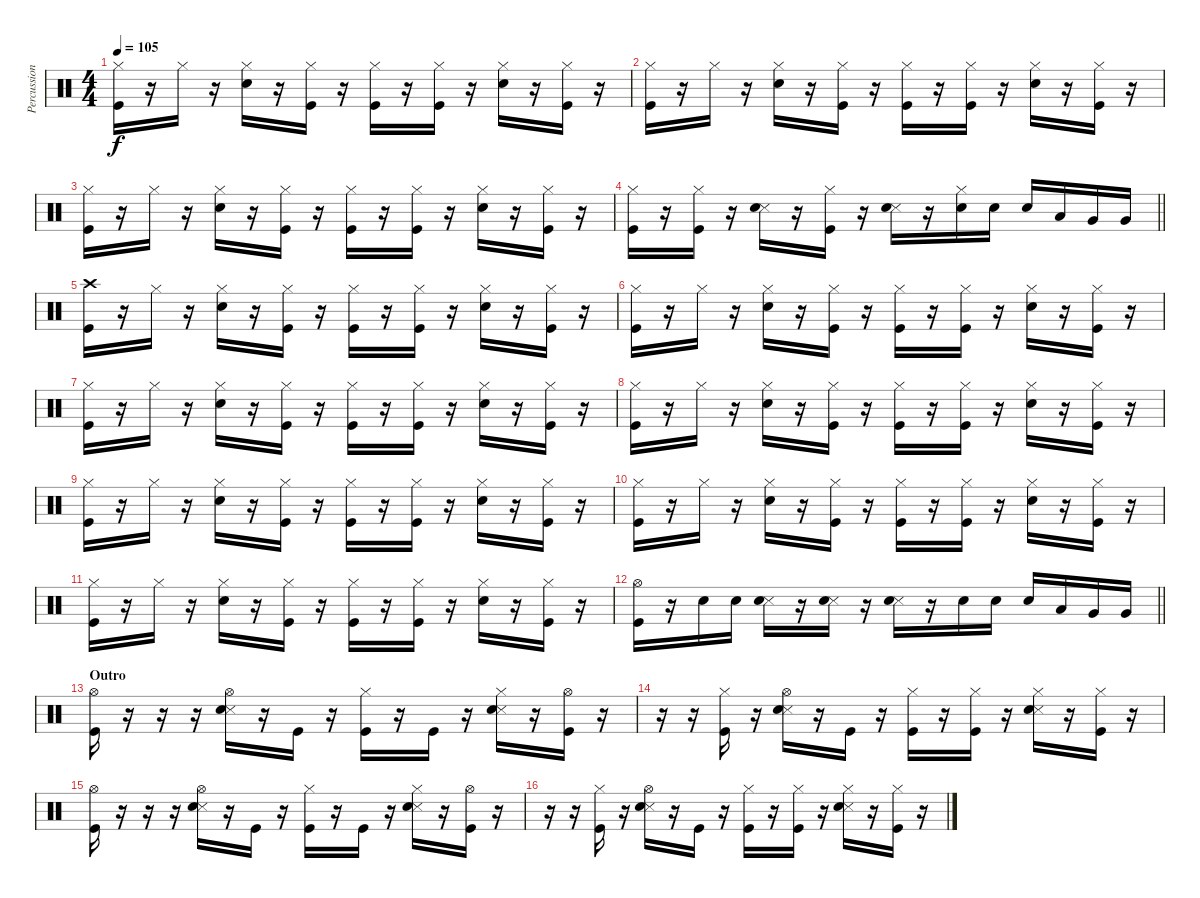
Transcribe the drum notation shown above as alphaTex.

\track ("Percussion" "Percussion") {instrument percussion}
\staff {score}
\articulation defaults
\ts (4 4)
\tempo 105
\clef neutral
\ks c
("Hi-Hat (closed)" "Kick (hit)").16{dy f} r.16 "Hi-Hat (closed)".16 r.16 ("Hi-Hat (closed)" "Snare (hit) 2").16 r.16 ("Hi-Hat (closed)" "Kick (hit)").16 r.16 ("Hi-Hat (closed)" "Kick (hit)").16 r.16 ("Hi-Hat (closed)" "Kick (hit)").16 r.16 ("Hi-Hat (closed)" "Snare (hit) 2").16 r.16 ("Hi-Hat (closed)" "Kick (hit)").16 r.16 |
("Hi-Hat (closed)" "Kick (hit)").16 r.16 "Hi-Hat (closed)".16 r.16 ("Hi-Hat (closed)" "Snare (hit) 2").16 r.16 ("Hi-Hat (closed)" "Kick (hit)").16 r.16 ("Hi-Hat (closed)" "Kick (hit)").16 r.16 ("Hi-Hat (closed)" "Kick (hit)").16 r.16 ("Hi-Hat (closed)" "Snare (hit) 2").16 r.16 ("Hi-Hat (closed)" "Kick (hit)").16 r.16 |
("Hi-Hat (closed)" "Kick (hit)").16 r.16 "Hi-Hat (closed)".16 r.16 ("Hi-Hat (closed)" "Snare (hit) 2").16 r.16 ("Hi-Hat (closed)" "Kick (hit)").16 r.16 ("Hi-Hat (closed)" "Kick (hit)").16 r.16 ("Hi-Hat (closed)" "Kick (hit)").16 r.16 ("Hi-Hat (closed)" "Snare (hit) 2").16 r.16 ("Hi-Hat (closed)" "Kick (hit)").16 r.16 |
\barLineRight lightlight
("Hi-Hat (closed)" "Kick (hit)").16 r.16 ("Hi-Hat (closed)" "Kick (hit)").16 r.16 ("Snare (side stick) 3" "Snare (hit) 2").16 r.16 ("Hi-Hat (closed)" "Kick (hit)").16 r.16 ("Snare (side stick) 3" "Snare (hit) 2").16 r.16 ("Hi-Hat (closed)" "Snare (hit) 2").16 "Snare (hit) 2".16 "Snare (hit) 2".16 "Low Tom (hit)".16 "Very Low Tom (hit)".16 "Very Low Tom (hit)".16 |
("Crash high (hit)" "Kick (hit)").16 r.16 "Hi-Hat (closed)".16 r.16 ("Hi-Hat (closed)" "Snare (hit) 2").16 r.16 ("Hi-Hat (closed)" "Kick (hit)").16 r.16 ("Hi-Hat (closed)" "Kick (hit)").16 r.16 ("Hi-Hat (closed)" "Kick (hit)").16 r.16 ("Hi-Hat (closed)" "Snare (hit) 2").16 r.16 ("Hi-Hat (closed)" "Kick (hit)").16 r.16 |
("Hi-Hat (closed)" "Kick (hit)").16 r.16 "Hi-Hat (closed)".16 r.16 ("Hi-Hat (closed)" "Snare (hit) 2").16 r.16 ("Hi-Hat (closed)" "Kick (hit)").16 r.16 ("Hi-Hat (closed)" "Kick (hit)").16 r.16 ("Hi-Hat (closed)" "Kick (hit)").16 r.16 ("Hi-Hat (closed)" "Snare (hit) 2").16 r.16 ("Hi-Hat (closed)" "Kick (hit)").16 r.16 |
("Hi-Hat (closed)" "Kick (hit)").16 r.16 "Hi-Hat (closed)".16 r.16 ("Hi-Hat (closed)" "Snare (hit) 2").16 r.16 ("Hi-Hat (closed)" "Kick (hit)").16 r.16 ("Hi-Hat (closed)" "Kick (hit)").16 r.16 ("Hi-Hat (closed)" "Kick (hit)").16 r.16 ("Hi-Hat (closed)" "Snare (hit) 2").16 r.16 ("Hi-Hat (closed)" "Kick (hit)").16 r.16 |
("Hi-Hat (closed)" "Kick (hit)").16 r.16 "Hi-Hat (closed)".16 r.16 ("Hi-Hat (closed)" "Snare (hit) 2").16 r.16 ("Hi-Hat (closed)" "Kick (hit)").16 r.16 ("Hi-Hat (closed)" "Kick (hit)").16 r.16 ("Hi-Hat (closed)" "Kick (hit)").16 r.16 ("Hi-Hat (closed)" "Snare (hit) 2").16 r.16 ("Hi-Hat (closed)" "Kick (hit)").16 r.16 |
("Hi-Hat (closed)" "Kick (hit)").16 r.16 "Hi-Hat (closed)".16 r.16 ("Hi-Hat (closed)" "Snare (hit) 2").16 r.16 ("Hi-Hat (closed)" "Kick (hit)").16 r.16 ("Hi-Hat (closed)" "Kick (hit)").16 r.16 ("Hi-Hat (closed)" "Kick (hit)").16 r.16 ("Hi-Hat (closed)" "Snare (hit) 2").16 r.16 ("Hi-Hat (closed)" "Kick (hit)").16 r.16 |
("Hi-Hat (closed)" "Kick (hit)").16 r.16 "Hi-Hat (closed)".16 r.16 ("Hi-Hat (closed)" "Snare (hit) 2").16 r.16 ("Hi-Hat (closed)" "Kick (hit)").16 r.16 ("Hi-Hat (closed)" "Kick (hit)").16 r.16 ("Hi-Hat (closed)" "Kick (hit)").16 r.16 ("Hi-Hat (closed)" "Snare (hit) 2").16 r.16 ("Hi-Hat (closed)" "Kick (hit)").16 r.16 |
("Hi-Hat (closed)" "Kick (hit)").16 r.16 "Hi-Hat (closed)".16 r.16 ("Hi-Hat (closed)" "Snare (hit) 2").16 r.16 ("Hi-Hat (closed)" "Kick (hit)").16 r.16 ("Hi-Hat (closed)" "Kick (hit)").16 r.16 ("Hi-Hat (closed)" "Kick (hit)").16 r.16 ("Hi-Hat (closed)" "Snare (hit) 2").16 r.16 ("Hi-Hat (closed)" "Kick (hit)").16 r.16 |
\barLineRight lightlight
("Hi-Hat (open)" "Kick (hit)").16 r.16 "Snare (hit) 2".16 "Snare (hit) 2".16 ("Snare (side stick) 3" "Snare (hit) 2").16 r.16 ("Snare (side stick) 3" "Snare (hit) 2").16 r.16 ("Snare (side stick) 3" "Snare (hit) 2").16 r.16 "Snare (hit) 2".16 "Snare (hit) 2".16 "Snare (hit) 2".16 "Low Tom (hit)".16 "Very Low Tom (hit)".16 "Very Low Tom (hit)".16 |
\section ("" "Outro")
("Hi-Hat (open)" "Kick (hit)").16 r.16 r.16 r.16 ("Hi-Hat (open)" "Snare (side stick) 3" "Snare (hit) 2").16 r.16 "Kick (hit)".16 r.16 ("Hi-Hat (closed)" "Kick (hit)").16 r.16 "Kick (hit)".16 r.16 ("Hi-Hat (closed)" "Snare (side stick) 3" "Snare (hit) 2").16 r.16 ("Hi-Hat (open)" "Kick (hit)").16 r.16 |
r.16 r.16 ("Hi-Hat (closed)" "Kick (hit)").16 r.16 ("Hi-Hat (open)" "Snare (side stick) 3" "Snare (hit) 2").16 r.16 "Kick (hit)".16 r.16 ("Hi-Hat (closed)" "Kick (hit)").16 r.16 ("Hi-Hat (closed)" "Kick (hit)").16 r.16 ("Hi-Hat (closed)" "Snare (side stick) 3" "Snare (hit) 2").16 r.16 ("Hi-Hat (closed)" "Kick (hit)").16 r.16 |
("Hi-Hat (open)" "Kick (hit)").16 r.16 r.16 r.16 ("Hi-Hat (open)" "Snare (side stick) 3" "Snare (hit) 2").16 r.16 "Kick (hit)".16 r.16 ("Hi-Hat (closed)" "Kick (hit)").16 r.16 "Kick (hit)".16 r.16 ("Hi-Hat (closed)" "Snare (side stick) 3" "Snare (hit) 2").16 r.16 ("Hi-Hat (open)" "Kick (hit)").16 r.16 |
r.16 r.16 ("Hi-Hat (closed)" "Kick (hit)").16 r.16 ("Hi-Hat (open)" "Snare (side stick) 3" "Snare (hit) 2").16 r.16 "Kick (hit)".16 r.16 ("Hi-Hat (closed)" "Kick (hit)").16 r.16 ("Hi-Hat (closed)" "Kick (hit)").16 r.16 ("Hi-Hat (closed)" "Snare (side stick) 3" "Snare (hit) 2").16 r.16 ("Hi-Hat (closed)" "Kick (hit)").16 r.16
